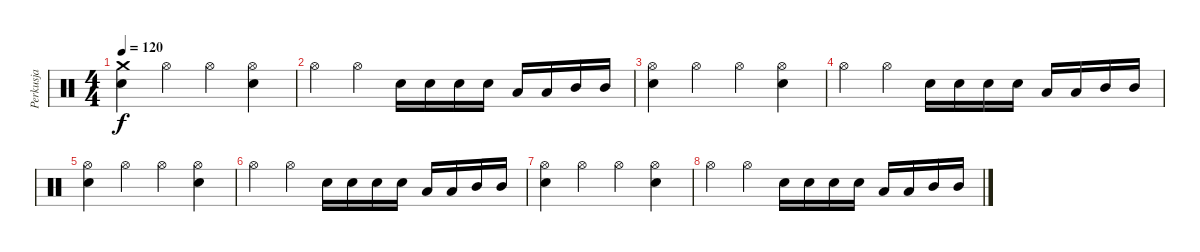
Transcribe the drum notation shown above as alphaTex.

\track ("Perkusja" "Perkusja") {instrument percussion}
\staff {score}
\articulation defaults
\ts (4 4)
\tempo 120
\clef neutral
\ks c
("Crash medium (hit)" "Snare (hit) 2").4{dy f} "Hi-Hat (open)".4 "Hi-Hat (open)".4 ("Hi-Hat (open)" "Snare (hit) 2").4 |
"Hi-Hat (open)".4 "Hi-Hat (open)".4 "Snare (hit) 2".16 "Snare (hit) 2".16 "Snare (hit) 2".16 "Snare (hit) 2".16 "Low Tom (hit)".16 "Low Tom (hit)".16 "Mid Tom (hit)".16 "Mid Tom (hit)".16 |
("Hi-Hat (open)" "Snare (hit) 2").4 "Hi-Hat (open)".4 "Hi-Hat (open)".4 ("Hi-Hat (open)" "Snare (hit) 2").4 |
"Hi-Hat (open)".4 "Hi-Hat (open)".4 "Snare (hit) 2".16 "Snare (hit) 2".16 "Snare (hit) 2".16 "Snare (hit) 2".16 "Low Tom (hit)".16 "Low Tom (hit)".16 "Mid Tom (hit)".16 "Mid Tom (hit)".16 |
("Hi-Hat (open)" "Snare (hit) 2").4 "Hi-Hat (open)".4 "Hi-Hat (open)".4 ("Hi-Hat (open)" "Snare (hit) 2").4 |
"Hi-Hat (open)".4 "Hi-Hat (open)".4 "Snare (hit) 2".16 "Snare (hit) 2".16 "Snare (hit) 2".16 "Snare (hit) 2".16 "Low Tom (hit)".16 "Low Tom (hit)".16 "Mid Tom (hit)".16 "Mid Tom (hit)".16 |
("Hi-Hat (open)" "Snare (hit) 2").4 "Hi-Hat (open)".4 "Hi-Hat (open)".4 ("Hi-Hat (open)" "Snare (hit) 2").4 |
"Hi-Hat (open)".4 "Hi-Hat (open)".4 "Snare (hit) 2".16 "Snare (hit) 2".16 "Snare (hit) 2".16 "Snare (hit) 2".16 "Low Tom (hit)".16 "Low Tom (hit)".16 "Mid Tom (hit)".16 "Mid Tom (hit)".16
